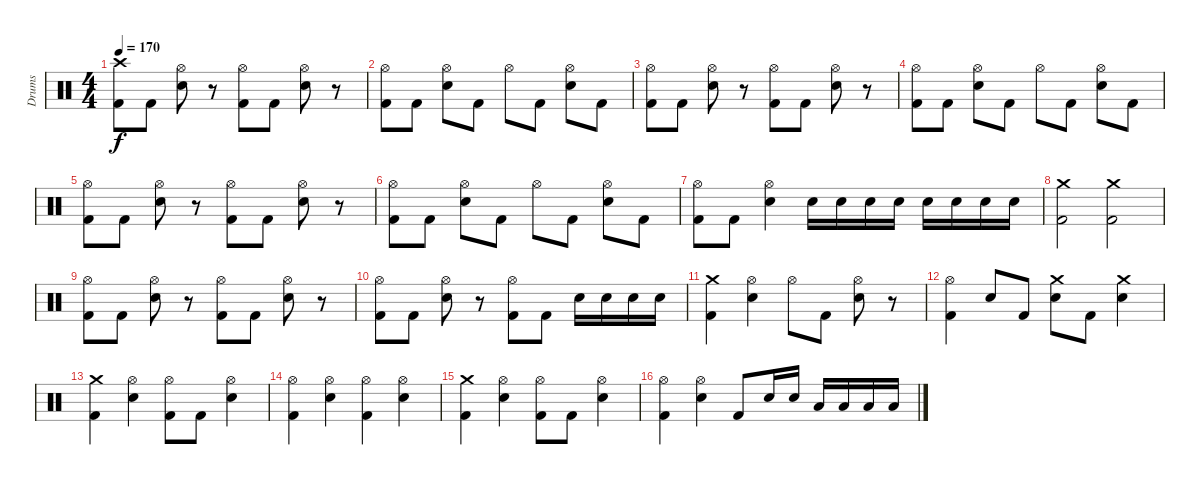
\track ("Drums" "Drums") {instrument percussion}
\staff {score}
\articulation defaults
\ts (4 4)
\tempo 170
\clef neutral
\ks c
("Crash high (hit)" "Kick (hit) 2").8{dy f} "Kick (hit) 2".8 ("Hi-Hat (open)" "Snare (hit) 2").8 r.8 ("Hi-Hat (open)" "Kick (hit) 2").8 "Kick (hit) 2".8 ("Hi-Hat (open)" "Snare (hit) 2").8 r.8 |
("Hi-Hat (open)" "Kick (hit) 2").8 "Kick (hit) 2".8 ("Hi-Hat (open)" "Snare (hit) 2").8 "Kick (hit) 2".8 "Hi-Hat (open)".8 "Kick (hit) 2".8 ("Hi-Hat (open)" "Snare (hit) 2").8 "Kick (hit) 2".8 |
("Hi-Hat (open)" "Kick (hit) 2").8 "Kick (hit) 2".8 ("Hi-Hat (open)" "Snare (hit) 2").8 r.8 ("Hi-Hat (open)" "Kick (hit) 2").8 "Kick (hit) 2".8 ("Hi-Hat (open)" "Snare (hit) 2").8 r.8 |
("Hi-Hat (open)" "Kick (hit) 2").8 "Kick (hit) 2".8 ("Hi-Hat (open)" "Snare (hit) 2").8 "Kick (hit) 2".8 "Hi-Hat (open)".8 "Kick (hit) 2".8 ("Hi-Hat (open)" "Snare (hit) 2").8 "Kick (hit) 2".8 |
("Hi-Hat (open)" "Kick (hit) 2").8 "Kick (hit) 2".8 ("Hi-Hat (open)" "Snare (hit) 2").8 r.8 ("Hi-Hat (open)" "Kick (hit) 2").8 "Kick (hit) 2".8 ("Hi-Hat (open)" "Snare (hit) 2").8 r.8 |
("Hi-Hat (open)" "Kick (hit) 2").8 "Kick (hit) 2".8 ("Hi-Hat (open)" "Snare (hit) 2").8 "Kick (hit) 2".8 "Hi-Hat (open)".8 "Kick (hit) 2".8 ("Hi-Hat (open)" "Snare (hit) 2").8 "Kick (hit) 2".8 |
("Hi-Hat (open)" "Kick (hit) 2").8 "Kick (hit) 2".8 ("Hi-Hat (open)" "Snare (hit) 2").4 "Snare (hit) 2".16 "Snare (hit) 2".16 "Snare (hit) 2".16 "Snare (hit) 2".16 "Snare (hit) 2".16 "Snare (hit) 2".16 "Snare (hit) 2".16 "Snare (hit) 2".16 |
("Crash medium (hit)" "Kick (hit) 2").2 ("Crash medium (hit)" "Kick (hit) 2").2 |
("Hi-Hat (open)" "Kick (hit) 2").8 "Kick (hit) 2".8 ("Hi-Hat (open)" "Snare (hit) 2").8 r.8 ("Hi-Hat (open)" "Kick (hit) 2").8 "Kick (hit) 2".8 ("Hi-Hat (open)" "Snare (hit) 2").8 r.8 |
("Hi-Hat (open)" "Kick (hit) 2").8 "Kick (hit) 2".8 ("Hi-Hat (open)" "Snare (hit) 2").8 r.8 ("Hi-Hat (open)" "Kick (hit) 2").8 "Kick (hit) 2".8 "Snare (hit) 2".16 "Snare (hit) 2".16 "Snare (hit) 2".16 "Snare (hit) 2".16 |
("Crash medium (hit)" "Kick (hit) 2").4 ("Hi-Hat (open)" "Snare (hit) 2").4 "Hi-Hat (open)".8 "Kick (hit) 2".8 ("Hi-Hat (open)" "Snare (hit) 2").8 r.8 |
("Hi-Hat (open)" "Kick (hit) 2").4 "Snare (hit) 2".8 "Kick (hit) 2".8 ("Crash medium (hit)" "Snare (hit) 2").8 "Kick (hit) 2".8 ("Crash medium (hit)" "Snare (hit) 2").4 |
("Crash medium (hit)" "Kick (hit) 2").4 ("Hi-Hat (open)" "Snare (hit) 2").4 ("Hi-Hat (open)" "Kick (hit) 2").8 "Kick (hit) 2".8 ("Hi-Hat (open)" "Snare (hit) 2").4 |
("Hi-Hat (open)" "Kick (hit) 2").4 ("Hi-Hat (open)" "Snare (hit) 2").4 ("Hi-Hat (open)" "Kick (hit) 2").4 ("Hi-Hat (open)" "Snare (hit) 2").4 |
("Crash medium (hit)" "Kick (hit) 2").4 ("Hi-Hat (open)" "Snare (hit) 2").4 ("Hi-Hat (open)" "Kick (hit) 2").8 "Kick (hit) 2".8 ("Hi-Hat (open)" "Snare (hit) 2").4 |
("Hi-Hat (open)" "Kick (hit) 2").4 ("Hi-Hat (open)" "Snare (hit) 2").4 "Kick (hit) 2".8 "Snare (hit) 2".16 "Snare (hit) 2".16 "Low Tom (hit)".16 "Low Tom (hit)".16 "Low Floor Tom (hit)".16 "Low Floor Tom (hit)".16
